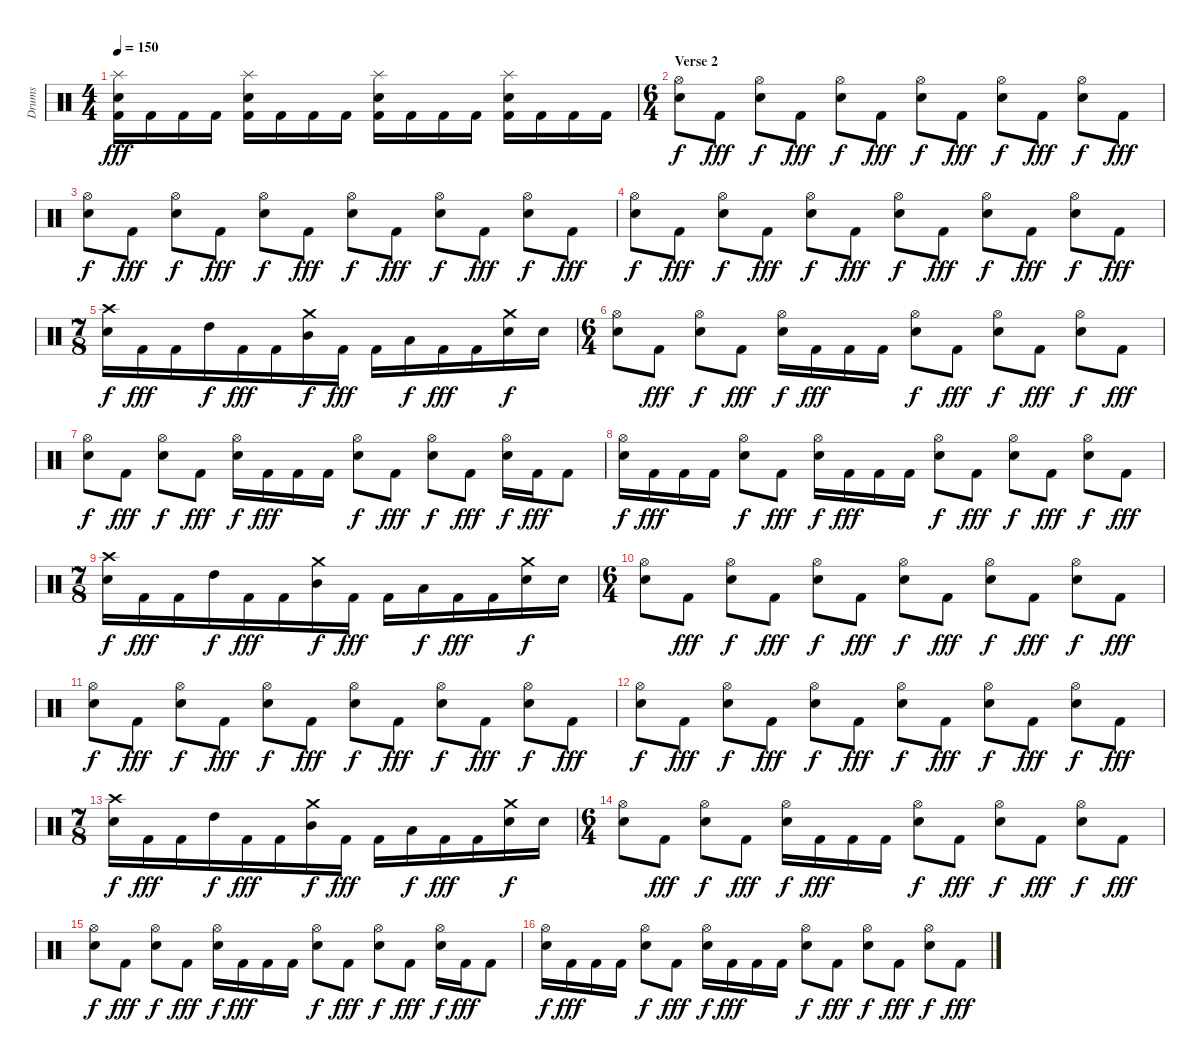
\track ("Drums" "Drums") {instrument percussion}
\staff {score}
\articulation defaults
\ts (4 4)
\tempo 150
\clef neutral
\ks c
("Splash (hit)" "Electric Snare (hit)" "Kick (hit) 2").16{dy fff} "Kick (hit) 2".16 "Kick (hit) 2".16 "Kick (hit) 2".16 ("Splash (hit)" "Electric Snare (hit)" "Kick (hit) 2").16 "Kick (hit) 2".16 "Kick (hit) 2".16 "Kick (hit) 2".16 ("Splash (hit)" "Electric Snare (hit)" "Kick (hit) 2").16 "Kick (hit) 2".16 "Kick (hit) 2".16 "Kick (hit) 2".16 ("Splash (hit)" "Electric Snare (hit)" "Kick (hit) 2").16 "Kick (hit) 2".16 "Kick (hit) 2".16 "Kick (hit) 2".16 |
\ts (6 4)
\section ("" "Verse 2")
("Hi-Hat (open)" "Electric Snare (hit)").8{dy f} "Kick (hit) 2".8{dy fff} ("Hi-Hat (open)" "Electric Snare (hit)").8{dy f} "Kick (hit) 2".8{dy fff} ("Hi-Hat (open)" "Electric Snare (hit)").8{dy f} "Kick (hit) 2".8{dy fff} ("Hi-Hat (open)" "Electric Snare (hit)").8{dy f} "Kick (hit) 2".8{dy fff} ("Hi-Hat (open)" "Electric Snare (hit)").8{dy f} "Kick (hit) 2".8{dy fff} ("Hi-Hat (open)" "Electric Snare (hit)").8{dy f} "Kick (hit) 2".8{dy fff} |
("Hi-Hat (open)" "Electric Snare (hit)").8{dy f} "Kick (hit) 2".8{dy fff} ("Hi-Hat (open)" "Electric Snare (hit)").8{dy f} "Kick (hit) 2".8{dy fff} ("Hi-Hat (open)" "Electric Snare (hit)").8{dy f} "Kick (hit) 2".8{dy fff} ("Hi-Hat (open)" "Electric Snare (hit)").8{dy f} "Kick (hit) 2".8{dy fff} ("Hi-Hat (open)" "Electric Snare (hit)").8{dy f} "Kick (hit) 2".8{dy fff} ("Hi-Hat (open)" "Electric Snare (hit)").8{dy f} "Kick (hit) 2".8{dy fff} |
("Hi-Hat (open)" "Electric Snare (hit)").8{dy f} "Kick (hit) 2".8{dy fff} ("Hi-Hat (open)" "Electric Snare (hit)").8{dy f} "Kick (hit) 2".8{dy fff} ("Hi-Hat (open)" "Electric Snare (hit)").8{dy f} "Kick (hit) 2".8{dy fff} ("Hi-Hat (open)" "Electric Snare (hit)").8{dy f} "Kick (hit) 2".8{dy fff} ("Hi-Hat (open)" "Electric Snare (hit)").8{dy f} "Kick (hit) 2".8{dy fff} ("Hi-Hat (open)" "Electric Snare (hit)").8{dy f} "Kick (hit) 2".8{dy fff} |
\ts (7 8)
("Crash high (hit)" "Electric Snare (hit)").16{dy f} "Kick (hit) 2".16{dy fff} "Kick (hit) 2".16 "High Tom (hit)".16{dy f} "Kick (hit) 2".16{dy fff} "Kick (hit) 2".16 ("Crash medium (hit)" "Mid Tom (hit)").16{dy f} "Kick (hit) 2".16{dy fff} "Kick (hit) 2".16 "Low Tom (hit)".16{dy f} "Kick (hit) 2".16{dy fff} "Kick (hit) 2".16 ("Crash medium (hit)" "Electric Snare (hit)").16{dy f} "Electric Snare (hit)".16 |
\ts (6 4)
("Hi-Hat (open)" "Electric Snare (hit)").8 "Kick (hit) 2".8{dy fff} ("Hi-Hat (open)" "Electric Snare (hit)").8{dy f} "Kick (hit) 2".8{dy fff} ("Hi-Hat (open)" "Electric Snare (hit)").16{dy f} "Kick (hit) 2".16{dy fff} "Kick (hit) 2".16 "Kick (hit) 2".16 ("Hi-Hat (open)" "Electric Snare (hit)").8{dy f} "Kick (hit) 2".8{dy fff} ("Hi-Hat (open)" "Electric Snare (hit)").8{dy f} "Kick (hit) 2".8{dy fff} ("Hi-Hat (open)" "Electric Snare (hit)").8{dy f} "Kick (hit) 2".8{dy fff} |
("Hi-Hat (open)" "Electric Snare (hit)").8{dy f} "Kick (hit) 2".8{dy fff} ("Hi-Hat (open)" "Electric Snare (hit)").8{dy f} "Kick (hit) 2".8{dy fff} ("Hi-Hat (open)" "Electric Snare (hit)").16{dy f} "Kick (hit) 2".16{dy fff} "Kick (hit) 2".16 "Kick (hit) 2".16 ("Hi-Hat (open)" "Electric Snare (hit)").8{dy f} "Kick (hit) 2".8{dy fff} ("Hi-Hat (open)" "Electric Snare (hit)").8{dy f} "Kick (hit) 2".8{dy fff} ("Hi-Hat (open)" "Electric Snare (hit)").16{dy f} "Kick (hit) 2".16{dy fff} "Kick (hit) 2".8 |
("Hi-Hat (open)" "Electric Snare (hit)").16{dy f} "Kick (hit) 2".16{dy fff} "Kick (hit) 2".16 "Kick (hit) 2".16 ("Hi-Hat (open)" "Electric Snare (hit)").8{dy f} "Kick (hit) 2".8{dy fff} ("Hi-Hat (open)" "Electric Snare (hit)").16{dy f} "Kick (hit) 2".16{dy fff} "Kick (hit) 2".16 "Kick (hit) 2".16 ("Hi-Hat (open)" "Electric Snare (hit)").8{dy f} "Kick (hit) 2".8{dy fff} ("Hi-Hat (open)" "Electric Snare (hit)").8{dy f} "Kick (hit) 2".8{dy fff} ("Hi-Hat (open)" "Electric Snare (hit)").8{dy f} "Kick (hit) 2".8{dy fff} |
\ts (7 8)
("Crash high (hit)" "Electric Snare (hit)").16{dy f} "Kick (hit) 2".16{dy fff} "Kick (hit) 2".16 "High Tom (hit)".16{dy f} "Kick (hit) 2".16{dy fff} "Kick (hit) 2".16 ("Crash medium (hit)" "Mid Tom (hit)").16{dy f} "Kick (hit) 2".16{dy fff} "Kick (hit) 2".16 "Low Tom (hit)".16{dy f} "Kick (hit) 2".16{dy fff} "Kick (hit) 2".16 ("Crash medium (hit)" "Electric Snare (hit)").16{dy f} "Electric Snare (hit)".16 |
\ts (6 4)
("Hi-Hat (open)" "Electric Snare (hit)").8 "Kick (hit) 2".8{dy fff} ("Hi-Hat (open)" "Electric Snare (hit)").8{dy f} "Kick (hit) 2".8{dy fff} ("Hi-Hat (open)" "Electric Snare (hit)").8{dy f} "Kick (hit) 2".8{dy fff} ("Hi-Hat (open)" "Electric Snare (hit)").8{dy f} "Kick (hit) 2".8{dy fff} ("Hi-Hat (open)" "Electric Snare (hit)").8{dy f} "Kick (hit) 2".8{dy fff} ("Hi-Hat (open)" "Electric Snare (hit)").8{dy f} "Kick (hit) 2".8{dy fff} |
("Hi-Hat (open)" "Electric Snare (hit)").8{dy f} "Kick (hit) 2".8{dy fff} ("Hi-Hat (open)" "Electric Snare (hit)").8{dy f} "Kick (hit) 2".8{dy fff} ("Hi-Hat (open)" "Electric Snare (hit)").8{dy f} "Kick (hit) 2".8{dy fff} ("Hi-Hat (open)" "Electric Snare (hit)").8{dy f} "Kick (hit) 2".8{dy fff} ("Hi-Hat (open)" "Electric Snare (hit)").8{dy f} "Kick (hit) 2".8{dy fff} ("Hi-Hat (open)" "Electric Snare (hit)").8{dy f} "Kick (hit) 2".8{dy fff} |
("Hi-Hat (open)" "Electric Snare (hit)").8{dy f} "Kick (hit) 2".8{dy fff} ("Hi-Hat (open)" "Electric Snare (hit)").8{dy f} "Kick (hit) 2".8{dy fff} ("Hi-Hat (open)" "Electric Snare (hit)").8{dy f} "Kick (hit) 2".8{dy fff} ("Hi-Hat (open)" "Electric Snare (hit)").8{dy f} "Kick (hit) 2".8{dy fff} ("Hi-Hat (open)" "Electric Snare (hit)").8{dy f} "Kick (hit) 2".8{dy fff} ("Hi-Hat (open)" "Electric Snare (hit)").8{dy f} "Kick (hit) 2".8{dy fff} |
\ts (7 8)
("Crash high (hit)" "Electric Snare (hit)").16{dy f} "Kick (hit) 2".16{dy fff} "Kick (hit) 2".16 "High Tom (hit)".16{dy f} "Kick (hit) 2".16{dy fff} "Kick (hit) 2".16 ("Crash medium (hit)" "Mid Tom (hit)").16{dy f} "Kick (hit) 2".16{dy fff} "Kick (hit) 2".16 "Low Tom (hit)".16{dy f} "Kick (hit) 2".16{dy fff} "Kick (hit) 2".16 ("Crash medium (hit)" "Electric Snare (hit)").16{dy f} "Electric Snare (hit)".16 |
\ts (6 4)
("Hi-Hat (open)" "Electric Snare (hit)").8 "Kick (hit) 2".8{dy fff} ("Hi-Hat (open)" "Electric Snare (hit)").8{dy f} "Kick (hit) 2".8{dy fff} ("Hi-Hat (open)" "Electric Snare (hit)").16{dy f} "Kick (hit) 2".16{dy fff} "Kick (hit) 2".16 "Kick (hit) 2".16 ("Hi-Hat (open)" "Electric Snare (hit)").8{dy f} "Kick (hit) 2".8{dy fff} ("Hi-Hat (open)" "Electric Snare (hit)").8{dy f} "Kick (hit) 2".8{dy fff} ("Hi-Hat (open)" "Electric Snare (hit)").8{dy f} "Kick (hit) 2".8{dy fff} |
("Hi-Hat (open)" "Electric Snare (hit)").8{dy f} "Kick (hit) 2".8{dy fff} ("Hi-Hat (open)" "Electric Snare (hit)").8{dy f} "Kick (hit) 2".8{dy fff} ("Hi-Hat (open)" "Electric Snare (hit)").16{dy f} "Kick (hit) 2".16{dy fff} "Kick (hit) 2".16 "Kick (hit) 2".16 ("Hi-Hat (open)" "Electric Snare (hit)").8{dy f} "Kick (hit) 2".8{dy fff} ("Hi-Hat (open)" "Electric Snare (hit)").8{dy f} "Kick (hit) 2".8{dy fff} ("Hi-Hat (open)" "Electric Snare (hit)").16{dy f} "Kick (hit) 2".16{dy fff} "Kick (hit) 2".8 |
("Hi-Hat (open)" "Electric Snare (hit)").16{dy f} "Kick (hit) 2".16{dy fff} "Kick (hit) 2".16 "Kick (hit) 2".16 ("Hi-Hat (open)" "Electric Snare (hit)").8{dy f} "Kick (hit) 2".8{dy fff} ("Hi-Hat (open)" "Electric Snare (hit)").16{dy f} "Kick (hit) 2".16{dy fff} "Kick (hit) 2".16 "Kick (hit) 2".16 ("Hi-Hat (open)" "Electric Snare (hit)").8{dy f} "Kick (hit) 2".8{dy fff} ("Hi-Hat (open)" "Electric Snare (hit)").8{dy f} "Kick (hit) 2".8{dy fff} ("Hi-Hat (open)" "Electric Snare (hit)").8{dy f} "Kick (hit) 2".8{dy fff}
